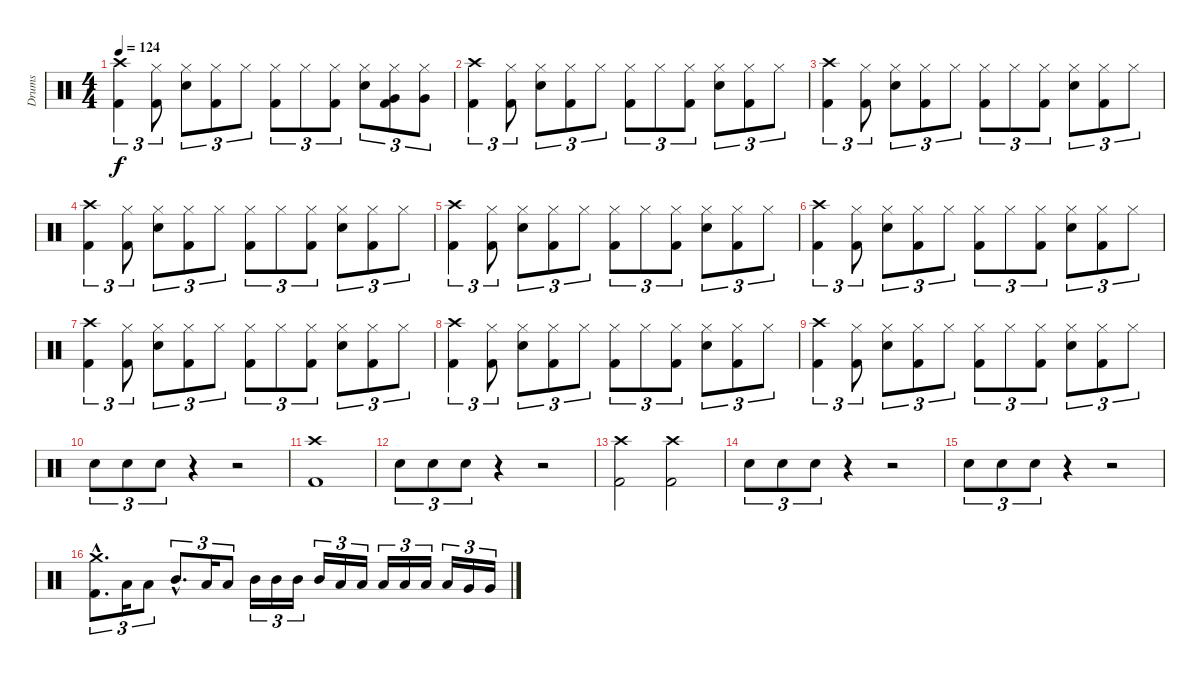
\track ("Drums" "Drums") {instrument percussion}
\staff {score}
\articulation defaults
\ts (4 4)
\tempo 124
\clef neutral
\ks c
("Crash high (hit)" "Kick (hit) 2").4{tu (3 2) dy f} ("Hi-Hat (closed)" "Kick (hit) 2").8{tu (3 2)} ("Hi-Hat (closed)" "Electric Snare (hit)").8{tu (3 2)} ("Hi-Hat (closed)" "Kick (hit) 2").8{tu (3 2)} "Hi-Hat (closed)".8{tu (3 2)} ("Hi-Hat (closed)" "Kick (hit) 2").8{tu (3 2)} "Hi-Hat (closed)".8{tu (3 2)} ("Hi-Hat (closed)" "Kick (hit) 2").8{tu (3 2)} ("Hi-Hat (closed)" "Electric Snare (hit)").8{tu (3 2)} ("Hi-Hat (closed)" "Very Low Tom (hit)" "Kick (hit) 2").8{tu (3 2)} ("Hi-Hat (closed)" "Very Low Tom (hit)").8{tu (3 2)} |
("Crash high (hit)" "Kick (hit) 2").4{tu (3 2)} ("Hi-Hat (closed)" "Kick (hit) 2").8{tu (3 2)} ("Hi-Hat (closed)" "Electric Snare (hit)").8{tu (3 2)} ("Hi-Hat (closed)" "Kick (hit) 2").8{tu (3 2)} "Hi-Hat (closed)".8{tu (3 2)} ("Hi-Hat (closed)" "Kick (hit) 2").8{tu (3 2)} "Hi-Hat (closed)".8{tu (3 2)} ("Hi-Hat (closed)" "Kick (hit) 2").8{tu (3 2)} ("Hi-Hat (closed)" "Electric Snare (hit)").8{tu (3 2)} ("Hi-Hat (closed)" "Kick (hit) 2").8{tu (3 2)} "Hi-Hat (closed)".8{tu (3 2)} |
("Crash high (hit)" "Kick (hit) 2").4{tu (3 2)} ("Hi-Hat (closed)" "Kick (hit) 2").8{tu (3 2)} ("Hi-Hat (closed)" "Electric Snare (hit)").8{tu (3 2)} ("Hi-Hat (closed)" "Kick (hit) 2").8{tu (3 2)} "Hi-Hat (closed)".8{tu (3 2)} ("Hi-Hat (closed)" "Kick (hit) 2").8{tu (3 2)} "Hi-Hat (closed)".8{tu (3 2)} ("Hi-Hat (closed)" "Kick (hit) 2").8{tu (3 2)} ("Hi-Hat (closed)" "Electric Snare (hit)").8{tu (3 2)} ("Hi-Hat (closed)" "Kick (hit) 2").8{tu (3 2)} "Hi-Hat (closed)".8{tu (3 2)} |
("Crash high (hit)" "Kick (hit) 2").4{tu (3 2)} ("Hi-Hat (closed)" "Kick (hit) 2").8{tu (3 2)} ("Hi-Hat (closed)" "Electric Snare (hit)").8{tu (3 2)} ("Hi-Hat (closed)" "Kick (hit) 2").8{tu (3 2)} "Hi-Hat (closed)".8{tu (3 2)} ("Hi-Hat (closed)" "Kick (hit) 2").8{tu (3 2)} "Hi-Hat (closed)".8{tu (3 2)} ("Hi-Hat (closed)" "Kick (hit) 2").8{tu (3 2)} ("Hi-Hat (closed)" "Electric Snare (hit)").8{tu (3 2)} ("Hi-Hat (closed)" "Kick (hit) 2").8{tu (3 2)} "Hi-Hat (closed)".8{tu (3 2)} |
("Crash high (hit)" "Kick (hit) 2").4{tu (3 2)} ("Hi-Hat (closed)" "Kick (hit) 2").8{tu (3 2)} ("Hi-Hat (closed)" "Electric Snare (hit)").8{tu (3 2)} ("Hi-Hat (closed)" "Kick (hit) 2").8{tu (3 2)} "Hi-Hat (closed)".8{tu (3 2)} ("Hi-Hat (closed)" "Kick (hit) 2").8{tu (3 2)} "Hi-Hat (closed)".8{tu (3 2)} ("Hi-Hat (closed)" "Kick (hit) 2").8{tu (3 2)} ("Hi-Hat (closed)" "Electric Snare (hit)").8{tu (3 2)} ("Hi-Hat (closed)" "Kick (hit) 2").8{tu (3 2)} "Hi-Hat (closed)".8{tu (3 2)} |
("Crash high (hit)" "Kick (hit) 2").4{tu (3 2)} ("Hi-Hat (closed)" "Kick (hit) 2").8{tu (3 2)} ("Hi-Hat (closed)" "Electric Snare (hit)").8{tu (3 2)} ("Hi-Hat (closed)" "Kick (hit) 2").8{tu (3 2)} "Hi-Hat (closed)".8{tu (3 2)} ("Hi-Hat (closed)" "Kick (hit) 2").8{tu (3 2)} "Hi-Hat (closed)".8{tu (3 2)} ("Hi-Hat (closed)" "Kick (hit) 2").8{tu (3 2)} ("Hi-Hat (closed)" "Electric Snare (hit)").8{tu (3 2)} ("Hi-Hat (closed)" "Kick (hit) 2").8{tu (3 2)} "Hi-Hat (closed)".8{tu (3 2)} |
("Crash high (hit)" "Kick (hit) 2").4{tu (3 2)} ("Hi-Hat (closed)" "Kick (hit) 2").8{tu (3 2)} ("Hi-Hat (closed)" "Electric Snare (hit)").8{tu (3 2)} ("Hi-Hat (closed)" "Kick (hit) 2").8{tu (3 2)} "Hi-Hat (closed)".8{tu (3 2)} ("Hi-Hat (closed)" "Kick (hit) 2").8{tu (3 2)} "Hi-Hat (closed)".8{tu (3 2)} ("Hi-Hat (closed)" "Kick (hit) 2").8{tu (3 2)} ("Hi-Hat (closed)" "Electric Snare (hit)").8{tu (3 2)} ("Hi-Hat (closed)" "Kick (hit) 2").8{tu (3 2)} "Hi-Hat (closed)".8{tu (3 2)} |
("Crash high (hit)" "Kick (hit) 2").4{tu (3 2)} ("Hi-Hat (closed)" "Kick (hit) 2").8{tu (3 2)} ("Hi-Hat (closed)" "Electric Snare (hit)").8{tu (3 2)} ("Hi-Hat (closed)" "Kick (hit) 2").8{tu (3 2)} "Hi-Hat (closed)".8{tu (3 2)} ("Hi-Hat (closed)" "Kick (hit) 2").8{tu (3 2)} "Hi-Hat (closed)".8{tu (3 2)} ("Hi-Hat (closed)" "Kick (hit) 2").8{tu (3 2)} ("Hi-Hat (closed)" "Electric Snare (hit)").8{tu (3 2)} ("Hi-Hat (closed)" "Kick (hit) 2").8{tu (3 2)} "Hi-Hat (closed)".8{tu (3 2)} |
("Crash high (hit)" "Kick (hit) 2").4{tu (3 2)} ("Hi-Hat (closed)" "Kick (hit) 2").8{tu (3 2)} ("Hi-Hat (closed)" "Electric Snare (hit)").8{tu (3 2)} ("Hi-Hat (closed)" "Kick (hit) 2").8{tu (3 2)} "Hi-Hat (closed)".8{tu (3 2)} ("Hi-Hat (closed)" "Kick (hit) 2").8{tu (3 2)} "Hi-Hat (closed)".8{tu (3 2)} ("Hi-Hat (closed)" "Kick (hit) 2").8{tu (3 2)} ("Hi-Hat (closed)" "Electric Snare (hit)").8{tu (3 2)} ("Hi-Hat (closed)" "Kick (hit) 2").8{tu (3 2)} "Hi-Hat (closed)".8{tu (3 2)} |
"Electric Snare (hit)".8{tu (3 2)} "Electric Snare (hit)".8{tu (3 2)} "Electric Snare (hit)".8{tu (3 2)} r.4 r.2 |
("Crash high (hit)" "Kick (hit) 2").1 |
"Electric Snare (hit)".8{tu (3 2)} "Electric Snare (hit)".8{tu (3 2)} "Electric Snare (hit)".8{tu (3 2)} r.4 r.2 |
("Crash high (hit)" "Kick (hit) 2").2 ("Crash high (hit)" "Kick (hit) 2").2 |
"Electric Snare (hit)".8{tu (3 2)} "Electric Snare (hit)".8{tu (3 2)} "Electric Snare (hit)".8{tu (3 2)} r.4 r.2 |
"Electric Snare (hit)".8{tu (3 2)} "Electric Snare (hit)".8{tu (3 2)} "Electric Snare (hit)".8{tu (3 2)} r.4 r.2 |
("Crash medium (hit)"{hac} "Kick (hit) 2"{hac}).8{d tu (3 2)} "Low Tom (hit)".16{tu (3 2)} "Low Tom (hit)".8{tu (3 2)} "Mid Tom (hit)"{hac}.8{d tu (3 2)} "Low Tom (hit)".16{tu (3 2)} "Low Tom (hit)".8{tu (3 2)} "Mid Tom (hit)".16{tu (3 2)} "Mid Tom (hit)".16{tu (3 2)} "Mid Tom (hit)".16{tu (3 2)} "Mid Tom (hit)".16{tu (3 2)} "Low Tom (hit)".16{tu (3 2)} "Low Tom (hit)".16{tu (3 2)} "Low Tom (hit)".16{tu (3 2)} "Low Tom (hit)".16{tu (3 2)} "Low Tom (hit)".16{tu (3 2)} "Low Tom (hit)".16{tu (3 2)} "Very Low Tom (hit)".16{tu (3 2)} "Very Low Tom (hit)".16{tu (3 2)}
